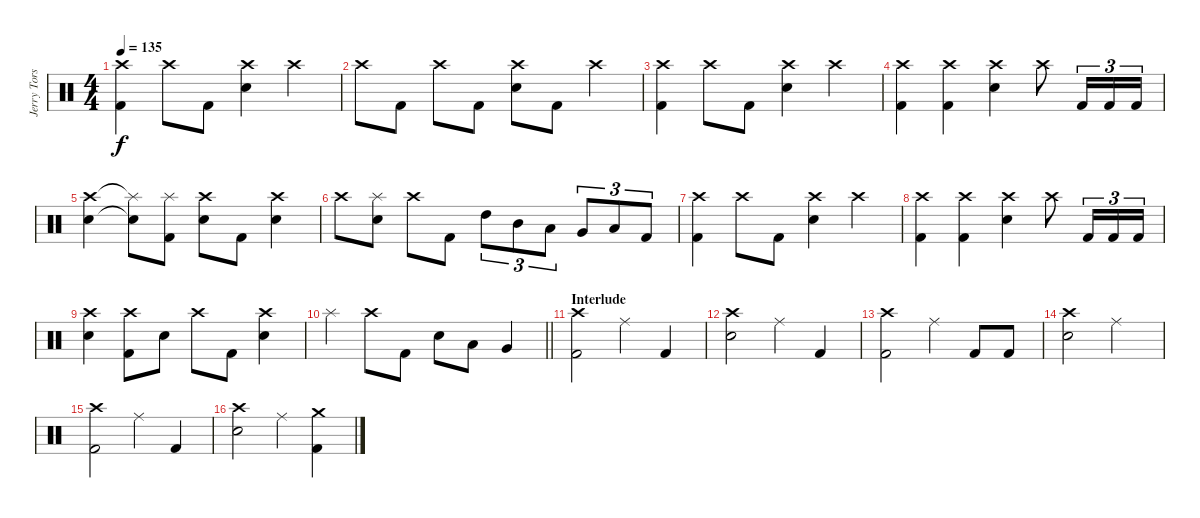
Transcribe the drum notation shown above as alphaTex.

\track ("Jerry Torstensson" "Jerry Tors") {instrument percussion}
\staff {score}
\articulation defaults
\ts (4 4)
\tempo 135
\clef neutral
\ks c
("Crash high (hit)" "Kick (hit) 2").4{dy f} "Crash high (hit)".8 "Kick (hit) 2".8 ("Crash high (hit)" "Snare (hit) 2").4 "Crash high (hit)".4 |
"Crash high (hit)".8 "Kick (hit) 2".8 "Crash high (hit)".8 "Kick (hit) 2".8 ("Crash high (hit)" "Snare (hit) 2").8 "Kick (hit) 2".8 "Crash high (hit)".4 |
("Crash high (hit)" "Kick (hit) 2").4 "Crash high (hit)".8 "Kick (hit) 2".8 ("Crash high (hit)" "Snare (hit) 2").4 "Crash high (hit)".4 |
("Crash high (hit)" "Kick (hit) 2").4 ("Crash high (hit)" "Kick (hit) 2").4 ("Crash high (hit)" "Snare (hit) 2").4 "Crash high (hit)".8 "Kick (hit) 2".16{tu (3 2)} "Kick (hit) 2".16{tu (3 2)} "Kick (hit) 2".16{tu (3 2)} |
("Crash high (hit)" "Snare (hit) 2").4 ("Splash (hit)"{t} "Snare (hit)"{t}).8 ("Splash (hit)" "Kick (hit) 2").8 ("Crash high (hit)" "Snare (hit) 2").8 "Kick (hit) 2".8 ("Crash high (hit)" "Snare (hit) 2").4 |
"Crash high (hit)".8 ("Splash (hit)" "Snare (hit) 2").8 "Crash high (hit)".8 "Kick (hit) 2".8 "High Tom (hit)".8{tu (3 2)} "Mid Tom (hit)".8{tu (3 2)} "Low Tom (hit)".8{tu (3 2)} "Very Low Tom (hit)".8{tu (3 2)} "Low Floor Tom (hit)".8{tu (3 2)} "Kick (hit) 2".8{tu (3 2)} |
("Crash high (hit)" "Kick (hit) 2").4 "Crash high (hit)".8 "Kick (hit) 2".8 ("Crash high (hit)" "Snare (hit) 2").4 "Crash high (hit)".4 |
("Crash high (hit)" "Kick (hit) 2").4 ("Crash high (hit)" "Kick (hit) 2").4 ("Crash high (hit)" "Snare (hit) 2").4 "Crash high (hit)".8 "Kick (hit) 2".16{tu (3 2)} "Kick (hit) 2".16{tu (3 2)} "Kick (hit) 2".16{tu (3 2)} |
("Crash high (hit)" "Snare (hit) 2").4 ("Crash high (hit)" "Kick (hit) 2").8 "Snare (hit) 2".8 "Crash high (hit)".8 "Kick (hit) 2".8 ("Crash high (hit)" "Snare (hit) 2").4 |
\barLineRight lightlight "Splash (hit)".4 "Crash high (hit)".8 "Kick (hit) 2".8 "Snare (hit) 2".8 "Low Tom (hit)".8 "Very Low Tom (hit)".4
|
\section ("" "Interlude")
("Crash high (hit)" "Kick (hit) 2").2 "Ride (middle)".4 "Kick (hit) 2".4 |
("Crash high (hit)" "Snare (hit) 2").2 "Ride (middle)".4 "Kick (hit) 2".4 |
("Crash high (hit)" "Kick (hit) 2").2 "Ride (middle)".4 "Kick (hit) 2".8 "Kick (hit) 2".8 |
("Crash high (hit)" "Snare (hit) 2").2 "Ride (middle)".2 |
("Crash high (hit)" "Kick (hit) 2").2 "Ride (middle)".4 "Kick (hit) 2".4 |
("Crash high (hit)" "Snare (hit) 2").2 "Ride (middle)".4 ("Crash medium (hit)" "Kick (hit) 2").4
